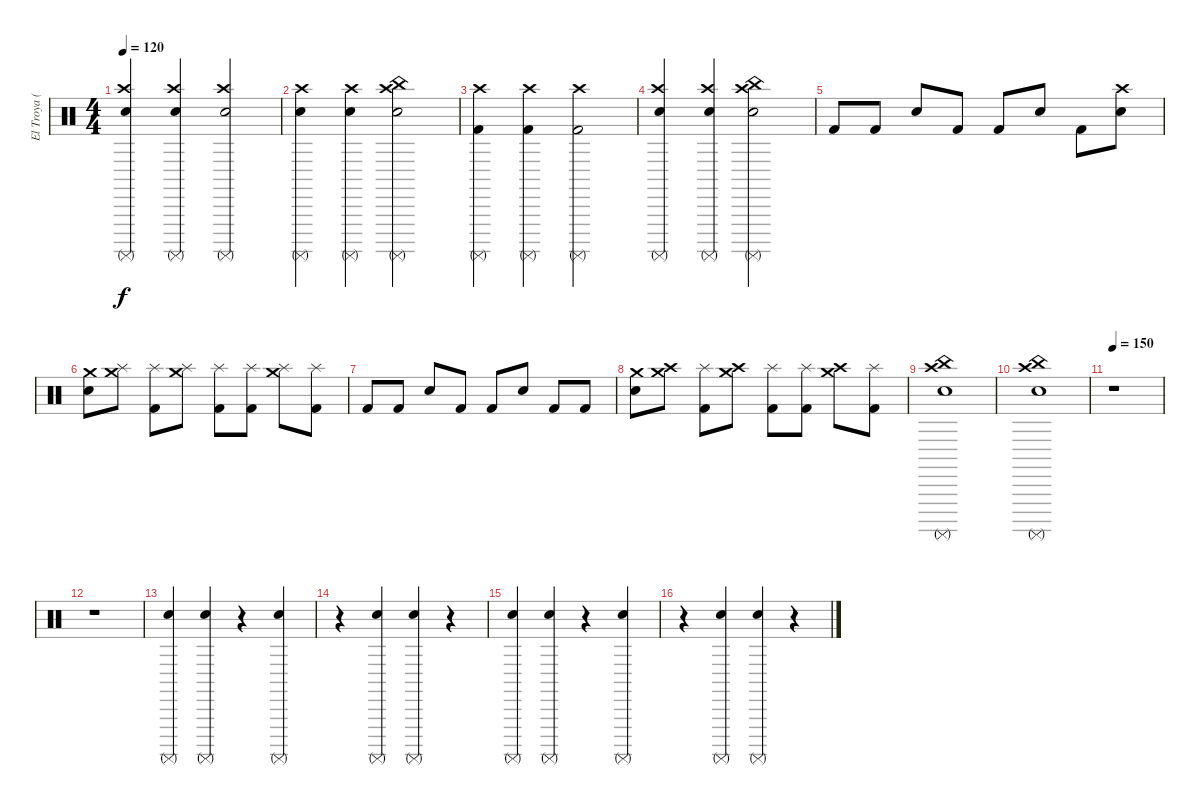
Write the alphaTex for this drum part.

\track ("El Troya (premio)" "El Troya (") {instrument percussion}
\staff {score}
\articulation defaults
\ts (4 4)
\tempo 120
\clef neutral
\ks c
("Crash high (hit)" "Snare (hit) 2" "Surdo (mute)").4{dy f} ("Crash high (hit)" "Snare (hit) 2" "Surdo (mute)").4 ("Crash high (hit)" "Snare (hit) 2" "Surdo (mute)").2 |
("Crash high (hit)" "Electric Snare (hit)" "Surdo (mute)").4 ("Crash high (hit)" "Electric Snare (hit)" "Surdo (mute)").4 ("China (hit)" "Crash high (hit)" "Electric Snare (hit)" "Surdo (mute)").2 |
("Crash high (hit)" "Kick (hit) 2" "Surdo (mute)").4 ("Crash high (hit)" "Kick (hit) 2" "Surdo (mute)").4 ("Crash high (hit)" "Kick (hit) 2" "Surdo (mute)").2 |
("Crash high (hit)" "Snare (hit) 2" "Surdo (mute)").4 ("Crash high (hit)" "Snare (hit) 2" "Surdo (mute)").4 ("China (hit)" "Crash high (hit)" "Snare (hit) 2" "Surdo (mute)").2 |
"Kick (hit) 2".8 "Kick (hit) 2".8 "Snare (hit) 2".8 "Kick (hit) 2".8 "Kick (hit) 2".8 "Snare (hit) 2".8 "Kick (hit) 2".8 ("Crash high (hit)" "Snare (hit) 2").8 |
("Crash medium (hit)" "Snare (hit) 2").8 ("Splash (hit)" "Crash medium (hit)").8 ("Splash (hit)" "Kick (hit) 2").8 ("Splash (hit)" "Crash medium (hit)").8 ("Splash (hit)" "Kick (hit) 2").8 ("Splash (hit)" "Kick (hit) 2").8 ("Splash (hit)" "Crash medium (hit)").8 ("Splash (hit)" "Kick (hit) 2").8 |
"Kick (hit) 2".8 "Kick (hit) 2".8 "Snare (hit) 2".8 "Kick (hit) 2".8 "Kick (hit) 2".8 "Snare (hit) 2".8 "Kick (hit) 2".8 "Kick (hit) 2".8 |
("Crash medium (hit)" "Snare (hit) 2").8 ("Crash high (hit)" "Crash medium (hit)").8 ("Splash (hit)" "Kick (hit) 2").8 ("Crash high (hit)" "Crash medium (hit)").8 ("Splash (hit)" "Kick (hit) 2").8 ("Splash (hit)" "Kick (hit) 2").8 ("Crash high (hit)" "Crash medium (hit)").8 ("Splash (hit)" "Kick (hit) 2").8 |
("Crash high (hit)" "Surdo (mute)" "Electric Snare (hit)" "China (hit)").1 |
("China (hit)" "Crash high (hit)" "Electric Snare (hit)" "Surdo (mute)").1 |
\tempo 150
r.1 |
r.1 |
("Electric Snare (hit)" "Surdo (mute)").4 ("Electric Snare (hit)" "Surdo (mute)").4 r.4 ("Electric Snare (hit)" "Surdo (mute)").4 |
r.4 ("Electric Snare (hit)" "Surdo (mute)").4 ("Electric Snare (hit)" "Surdo (mute)").4 r.4 |
("Electric Snare (hit)" "Surdo (mute)").4 ("Electric Snare (hit)" "Surdo (mute)").4 r.4 ("Electric Snare (hit)" "Surdo (mute)").4 |
r.4 ("Electric Snare (hit)" "Surdo (mute)").4 ("Electric Snare (hit)" "Surdo (mute)").4 r.4
